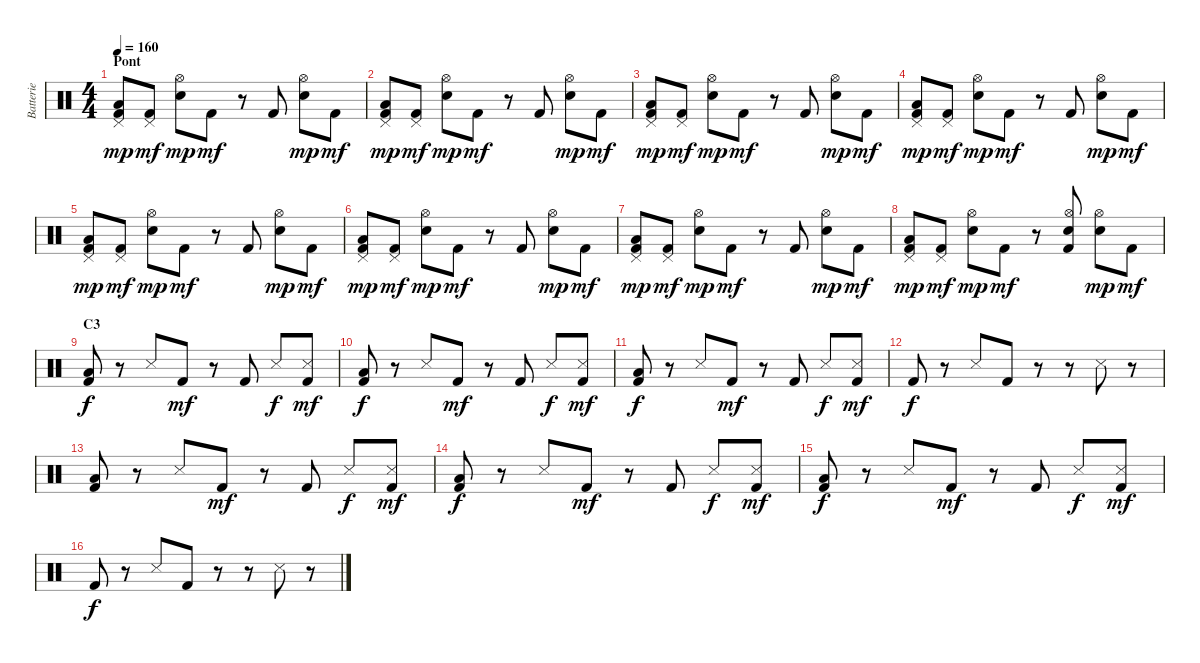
\track ("Batterie" "Batterie") {instrument percussion}
\staff {score}
\articulation defaults
\ts (4 4)
\section ("" "Pont")
\tempo 160
\clef neutral
\ks c
("Pedal Hi-Hat (hit)" "Low Floor Tom (hit)" "Kick (hit) 2").8{dy mp} ("Pedal Hi-Hat (hit)" "Kick (hit) 2").8{dy mf} ("Hi-Hat (open)" "Snare (hit) 2").8{dy mp} "Kick (hit) 2".8{dy mf} r.8 "Kick (hit) 2".8 ("Hi-Hat (open)" "Snare (hit) 2").8{dy mp} "Kick (hit) 2".8{dy mf} |
("Pedal Hi-Hat (hit)" "Low Floor Tom (hit)" "Kick (hit) 2").8{dy mp} ("Pedal Hi-Hat (hit)" "Kick (hit) 2").8{dy mf} ("Hi-Hat (open)" "Snare (hit) 2").8{dy mp} "Kick (hit) 2".8{dy mf} r.8 "Kick (hit) 2".8 ("Hi-Hat (open)" "Snare (hit) 2").8{dy mp} "Kick (hit) 2".8{dy mf} |
("Pedal Hi-Hat (hit)" "Low Floor Tom (hit)" "Kick (hit) 2").8{dy mp} ("Pedal Hi-Hat (hit)" "Kick (hit) 2").8{dy mf} ("Hi-Hat (open)" "Snare (hit) 2").8{dy mp} "Kick (hit) 2".8{dy mf} r.8 "Kick (hit) 2".8 ("Hi-Hat (open)" "Snare (hit) 2").8{dy mp} "Kick (hit) 2".8{dy mf} |
("Pedal Hi-Hat (hit)" "Low Floor Tom (hit)" "Kick (hit) 2").8{dy mp} ("Pedal Hi-Hat (hit)" "Kick (hit) 2").8{dy mf} ("Hi-Hat (open)" "Snare (hit) 2").8{dy mp} "Kick (hit) 2".8{dy mf} r.8 "Kick (hit) 2".8 ("Hi-Hat (open)" "Snare (hit) 2").8{dy mp} "Kick (hit) 2".8{dy mf} |
("Pedal Hi-Hat (hit)" "Low Floor Tom (hit)" "Kick (hit) 2").8{dy mp} ("Pedal Hi-Hat (hit)" "Kick (hit) 2").8{dy mf} ("Hi-Hat (open)" "Snare (hit) 2").8{dy mp} "Kick (hit) 2".8{dy mf} r.8 "Kick (hit) 2".8 ("Hi-Hat (open)" "Snare (hit) 2").8{dy mp} "Kick (hit) 2".8{dy mf} |
("Pedal Hi-Hat (hit)" "Low Floor Tom (hit)" "Kick (hit) 2").8{dy mp} ("Pedal Hi-Hat (hit)" "Kick (hit) 2").8{dy mf} ("Hi-Hat (open)" "Snare (hit) 2").8{dy mp} "Kick (hit) 2".8{dy mf} r.8 "Kick (hit) 2".8 ("Hi-Hat (open)" "Snare (hit) 2").8{dy mp} "Kick (hit) 2".8{dy mf} |
("Pedal Hi-Hat (hit)" "Low Floor Tom (hit)" "Kick (hit) 2").8{dy mp} ("Pedal Hi-Hat (hit)" "Kick (hit) 2").8{dy mf} ("Hi-Hat (open)" "Snare (hit) 2").8{dy mp} "Kick (hit) 2".8{dy mf} r.8 "Kick (hit) 2".8 ("Hi-Hat (open)" "Snare (hit) 2").8{dy mp} "Kick (hit) 2".8{dy mf} |
("Pedal Hi-Hat (hit)" "Low Floor Tom (hit)" "Kick (hit) 2").8{dy mp} ("Pedal Hi-Hat (hit)" "Kick (hit) 2").8{dy mf} ("Hi-Hat (open)" "Snare (hit) 2").8{dy mp} "Kick (hit) 2".8{dy mf} r.8 ("Hi-Hat (open)" "Snare (hit) 2" "Kick (hit) 2").8 ("Hi-Hat (open)" "Snare (hit) 2").8{dy mp} "Kick (hit) 2".8{dy mf} |
\section ("" "C3")
("Low Floor Tom (hit)" "Kick (hit) 2").8{dy f} r.8 "Snare (side stick) 3".8 "Kick (hit) 2".8{dy mf} r.8 "Kick (hit) 2".8 "Snare (side stick) 3".8{dy f} ("Metronome (hit)" "Kick (hit) 2").8{dy mf} |
("Low Floor Tom (hit)" "Kick (hit) 2").8{dy f} r.8 "Snare (side stick) 3".8 "Kick (hit) 2".8{dy mf} r.8 "Kick (hit) 2".8 "Snare (side stick) 3".8{dy f} ("Metronome (hit)" "Kick (hit) 2").8{dy mf} |
("Low Floor Tom (hit)" "Kick (hit) 2").8{dy f} r.8 "Snare (side stick) 3".8 "Kick (hit) 2".8{dy mf} r.8 "Kick (hit) 2".8 "Snare (side stick) 3".8{dy f} ("Metronome (hit)" "Kick (hit) 2").8{dy mf} |
"Kick (hit) 2".8{dy f} r.8 "Snare (side stick) 3".8 "Kick (hit) 2".8 r.8 r.8 "Snare (side stick) 3".8 r.8 |
("Low Floor Tom (hit)" "Kick (hit) 2").8 r.8 "Snare (side stick) 3".8 "Kick (hit) 2".8{dy mf} r.8 "Kick (hit) 2".8 "Snare (side stick) 3".8{dy f} ("Metronome (hit)" "Kick (hit) 2").8{dy mf} |
("Low Floor Tom (hit)" "Kick (hit) 2").8{dy f} r.8 "Snare (side stick) 3".8 "Kick (hit) 2".8{dy mf} r.8 "Kick (hit) 2".8 "Snare (side stick) 3".8{dy f} ("Metronome (hit)" "Kick (hit) 2").8{dy mf} |
("Low Floor Tom (hit)" "Kick (hit) 2").8{dy f} r.8 "Snare (side stick) 3".8 "Kick (hit) 2".8{dy mf} r.8 "Kick (hit) 2".8 "Snare (side stick) 3".8{dy f} ("Metronome (hit)" "Kick (hit) 2").8{dy mf} |
"Kick (hit) 2".8{dy f} r.8 "Snare (side stick) 3".8 "Kick (hit) 2".8 r.8 r.8 "Snare (side stick) 3".8 r.8
